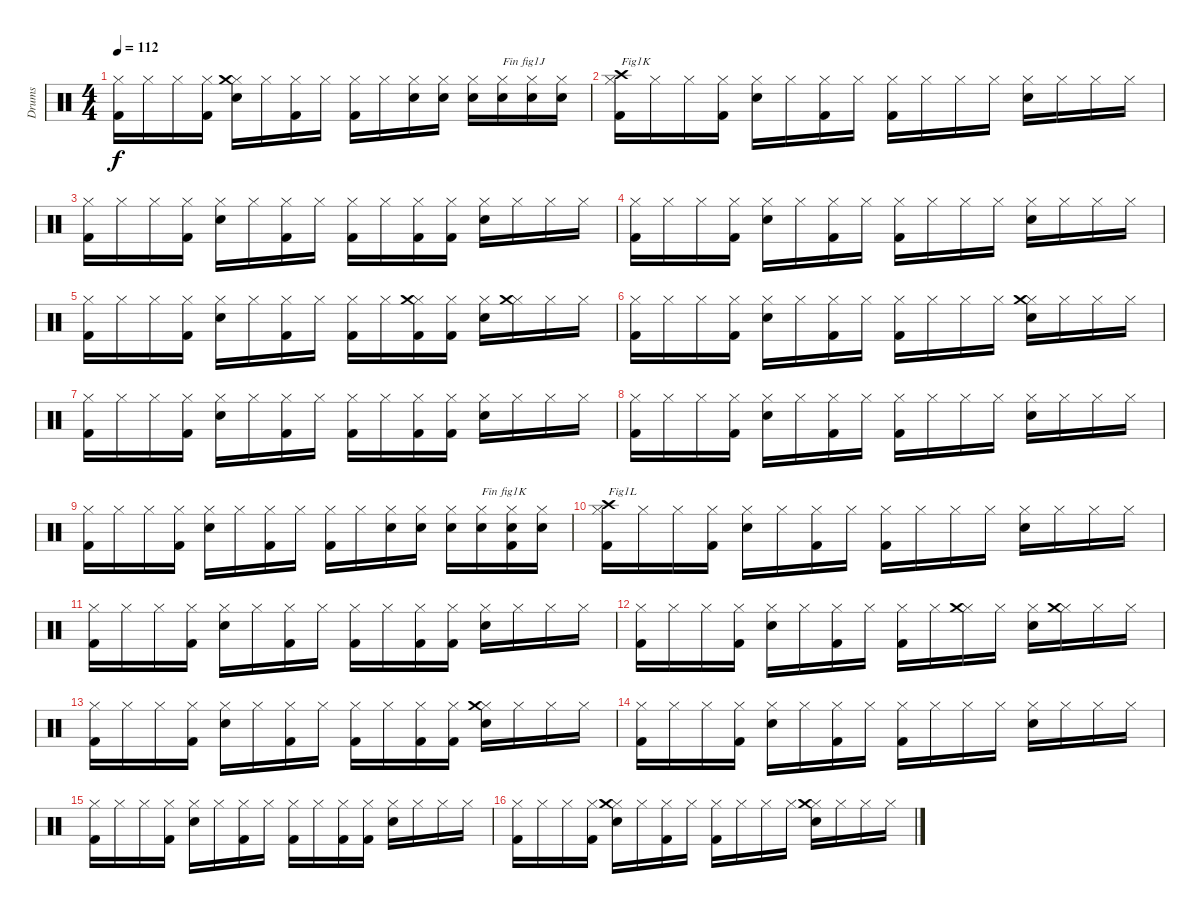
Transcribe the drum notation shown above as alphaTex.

\track ("Drums" "Drums") {instrument percussion}
\staff {score}
\articulation defaults
\ts (4 4)
\tempo 112
\clef neutral
\ks c
("Kick (hit) 2" "Hi-Hat (closed)").16{dy f} "Hi-Hat (closed)".16 "Hi-Hat (closed)".16 ("Kick (hit) 2" "Hi-Hat (closed)").16 ("Electric Snare (hit)" "Hi-Hat (closed)" "Crash medium (hit)").16 "Hi-Hat (closed)".16 ("Kick (hit) 2" "Hi-Hat (closed)").16 "Hi-Hat (closed)".16 ("Kick (hit) 2" "Hi-Hat (closed)").16 "Hi-Hat (closed)".16 ("Electric Snare (hit)" "Hi-Hat (closed)").16 ("Electric Snare (hit)" "Hi-Hat (closed)").16 ("Electric Snare (hit)" "Hi-Hat (closed)").16 ("Electric Snare (hit)" "Hi-Hat (closed)").16{txt "Fin fig1J"} ("Electric Snare (hit)" "Hi-Hat (closed)").16 ("Electric Snare (hit)" "Hi-Hat (closed)").16 |
("Kick (hit) 2" "Hi-Hat (closed)" "Crash high (hit)").16{txt "Fig1K"} "Hi-Hat (closed)".16 "Hi-Hat (closed)".16 ("Kick (hit) 2" "Hi-Hat (closed)").16 ("Electric Snare (hit)" "Hi-Hat (closed)").16 "Hi-Hat (closed)".16 ("Kick (hit) 2" "Hi-Hat (closed)").16 "Hi-Hat (closed)".16 ("Kick (hit) 2" "Hi-Hat (closed)").16 "Hi-Hat (closed)".16 "Hi-Hat (closed)".16 "Hi-Hat (closed)".16 ("Electric Snare (hit)" "Hi-Hat (closed)").16 "Hi-Hat (closed)".16 "Hi-Hat (closed)".16 "Hi-Hat (closed)".16 |
("Kick (hit) 2" "Hi-Hat (closed)").16 "Hi-Hat (closed)".16 "Hi-Hat (closed)".16 ("Kick (hit) 2" "Hi-Hat (closed)").16 ("Electric Snare (hit)" "Hi-Hat (closed)").16 "Hi-Hat (closed)".16 ("Kick (hit) 2" "Hi-Hat (closed)").16 "Hi-Hat (closed)".16 ("Kick (hit) 2" "Hi-Hat (closed)").16 "Hi-Hat (closed)".16 ("Kick (hit) 2" "Hi-Hat (closed)").16 ("Kick (hit) 2" "Hi-Hat (closed)").16 ("Electric Snare (hit)" "Hi-Hat (closed)").16 "Hi-Hat (closed)".16 "Hi-Hat (closed)".16 "Hi-Hat (closed)".16 |
("Kick (hit) 2" "Hi-Hat (closed)").16 "Hi-Hat (closed)".16 "Hi-Hat (closed)".16 ("Kick (hit) 2" "Hi-Hat (closed)").16 ("Electric Snare (hit)" "Hi-Hat (closed)").16 "Hi-Hat (closed)".16 ("Kick (hit) 2" "Hi-Hat (closed)").16 "Hi-Hat (closed)".16 ("Kick (hit) 2" "Hi-Hat (closed)").16 "Hi-Hat (closed)".16 "Hi-Hat (closed)".16 "Hi-Hat (closed)".16 ("Electric Snare (hit)" "Hi-Hat (closed)").16 "Hi-Hat (closed)".16 "Hi-Hat (closed)".16 "Hi-Hat (closed)".16 |
("Kick (hit) 2" "Hi-Hat (closed)").16 "Hi-Hat (closed)".16 "Hi-Hat (closed)".16 ("Kick (hit) 2" "Hi-Hat (closed)").16 ("Electric Snare (hit)" "Hi-Hat (closed)").16 "Hi-Hat (closed)".16 ("Kick (hit) 2" "Hi-Hat (closed)").16 "Hi-Hat (closed)".16 ("Kick (hit) 2" "Hi-Hat (closed)").16 "Hi-Hat (closed)".16 ("Kick (hit) 2" "Hi-Hat (closed)" "Crash medium (hit)").16 ("Kick (hit) 2" "Hi-Hat (closed)").16 ("Electric Snare (hit)" "Hi-Hat (closed)").16 ("Hi-Hat (closed)" "Crash medium (hit)").16 "Hi-Hat (closed)".16 "Hi-Hat (closed)".16 |
("Kick (hit) 2" "Hi-Hat (closed)").16 "Hi-Hat (closed)".16 "Hi-Hat (closed)".16 ("Kick (hit) 2" "Hi-Hat (closed)").16 ("Electric Snare (hit)" "Hi-Hat (closed)").16 "Hi-Hat (closed)".16 ("Kick (hit) 2" "Hi-Hat (closed)").16 "Hi-Hat (closed)".16 ("Kick (hit) 2" "Hi-Hat (closed)").16 "Hi-Hat (closed)".16 "Hi-Hat (closed)".16 "Hi-Hat (closed)".16 ("Electric Snare (hit)" "Hi-Hat (closed)" "Crash medium (hit)").16 "Hi-Hat (closed)".16 "Hi-Hat (closed)".16 "Hi-Hat (closed)".16 |
("Kick (hit) 2" "Hi-Hat (closed)").16 "Hi-Hat (closed)".16 "Hi-Hat (closed)".16 ("Kick (hit) 2" "Hi-Hat (closed)").16 ("Electric Snare (hit)" "Hi-Hat (closed)").16 "Hi-Hat (closed)".16 ("Kick (hit) 2" "Hi-Hat (closed)").16 "Hi-Hat (closed)".16 ("Kick (hit) 2" "Hi-Hat (closed)").16 "Hi-Hat (closed)".16 ("Kick (hit) 2" "Hi-Hat (closed)").16 ("Kick (hit) 2" "Hi-Hat (closed)").16 ("Electric Snare (hit)" "Hi-Hat (closed)").16 "Hi-Hat (closed)".16 "Hi-Hat (closed)".16 "Hi-Hat (closed)".16 |
("Kick (hit) 2" "Hi-Hat (closed)").16 "Hi-Hat (closed)".16 "Hi-Hat (closed)".16 ("Kick (hit) 2" "Hi-Hat (closed)").16 ("Electric Snare (hit)" "Hi-Hat (closed)").16 "Hi-Hat (closed)".16 ("Kick (hit) 2" "Hi-Hat (closed)").16 "Hi-Hat (closed)".16 ("Kick (hit) 2" "Hi-Hat (closed)").16 "Hi-Hat (closed)".16 "Hi-Hat (closed)".16 "Hi-Hat (closed)".16 ("Electric Snare (hit)" "Hi-Hat (closed)").16 "Hi-Hat (closed)".16 "Hi-Hat (closed)".16 "Hi-Hat (closed)".16 |
("Kick (hit) 2" "Hi-Hat (closed)").16 "Hi-Hat (closed)".16 "Hi-Hat (closed)".16 ("Kick (hit) 2" "Hi-Hat (closed)").16 ("Electric Snare (hit)" "Hi-Hat (closed)").16 "Hi-Hat (closed)".16 ("Kick (hit) 2" "Hi-Hat (closed)").16 "Hi-Hat (closed)".16 ("Kick (hit) 2" "Hi-Hat (closed)").16 "Hi-Hat (closed)".16 ("Electric Snare (hit)" "Hi-Hat (closed)").16 ("Electric Snare (hit)" "Hi-Hat (closed)").16 ("Electric Snare (hit)" "Hi-Hat (closed)").16 ("Electric Snare (hit)" "Hi-Hat (closed)").16{txt "Fin fig1K"} ("Kick (hit) 2" "Electric Snare (hit)" "Hi-Hat (closed)").16 ("Electric Snare (hit)" "Hi-Hat (closed)").16 |
("Kick (hit) 2" "Hi-Hat (closed)" "Crash high (hit)").16{txt "Fig1L"} "Hi-Hat (closed)".16 "Hi-Hat (closed)".16 ("Kick (hit) 2" "Hi-Hat (closed)").16 ("Electric Snare (hit)" "Hi-Hat (closed)").16 "Hi-Hat (closed)".16 ("Kick (hit) 2" "Hi-Hat (closed)").16 "Hi-Hat (closed)".16 ("Kick (hit) 2" "Hi-Hat (closed)").16 "Hi-Hat (closed)".16 "Hi-Hat (closed)".16 "Hi-Hat (closed)".16 ("Electric Snare (hit)" "Hi-Hat (closed)").16 "Hi-Hat (closed)".16 "Hi-Hat (closed)".16 "Hi-Hat (closed)".16 |
("Kick (hit) 2" "Hi-Hat (closed)").16 "Hi-Hat (closed)".16 "Hi-Hat (closed)".16 ("Kick (hit) 2" "Hi-Hat (closed)").16 ("Electric Snare (hit)" "Hi-Hat (closed)").16 "Hi-Hat (closed)".16 ("Kick (hit) 2" "Hi-Hat (closed)").16 "Hi-Hat (closed)".16 ("Kick (hit) 2" "Hi-Hat (closed)").16 "Hi-Hat (closed)".16 ("Kick (hit) 2" "Hi-Hat (closed)").16 ("Kick (hit) 2" "Hi-Hat (closed)").16 ("Electric Snare (hit)" "Hi-Hat (closed)").16 "Hi-Hat (closed)".16 "Hi-Hat (closed)".16 "Hi-Hat (closed)".16 |
("Kick (hit) 2" "Hi-Hat (closed)").16 "Hi-Hat (closed)".16 "Hi-Hat (closed)".16 ("Kick (hit) 2" "Hi-Hat (closed)").16 ("Electric Snare (hit)" "Hi-Hat (closed)").16 "Hi-Hat (closed)".16 ("Kick (hit) 2" "Hi-Hat (closed)").16 "Hi-Hat (closed)".16 ("Kick (hit) 2" "Hi-Hat (closed)").16 "Hi-Hat (closed)".16 ("Hi-Hat (closed)" "Crash medium (hit)").16 "Hi-Hat (closed)".16 ("Electric Snare (hit)" "Hi-Hat (closed)").16 ("Hi-Hat (closed)" "Crash medium (hit)").16 "Hi-Hat (closed)".16 "Hi-Hat (closed)".16 |
("Kick (hit) 2" "Hi-Hat (closed)").16 "Hi-Hat (closed)".16 "Hi-Hat (closed)".16 ("Kick (hit) 2" "Hi-Hat (closed)").16 ("Electric Snare (hit)" "Hi-Hat (closed)").16 "Hi-Hat (closed)".16 ("Kick (hit) 2" "Hi-Hat (closed)").16 "Hi-Hat (closed)".16 ("Kick (hit) 2" "Hi-Hat (closed)").16 "Hi-Hat (closed)".16 ("Kick (hit) 2" "Hi-Hat (closed)").16 ("Kick (hit) 2" "Hi-Hat (closed)").16 ("Electric Snare (hit)" "Hi-Hat (closed)" "Crash medium (hit)").16 "Hi-Hat (closed)".16 "Hi-Hat (closed)".16 "Hi-Hat (closed)".16 |
("Kick (hit) 2" "Hi-Hat (closed)").16 "Hi-Hat (closed)".16 "Hi-Hat (closed)".16 ("Kick (hit) 2" "Hi-Hat (closed)").16 ("Electric Snare (hit)" "Hi-Hat (closed)").16 "Hi-Hat (closed)".16 ("Kick (hit) 2" "Hi-Hat (closed)").16 "Hi-Hat (closed)".16 ("Kick (hit) 2" "Hi-Hat (closed)").16 "Hi-Hat (closed)".16 "Hi-Hat (closed)".16 "Hi-Hat (closed)".16 ("Electric Snare (hit)" "Hi-Hat (closed)").16 "Hi-Hat (closed)".16 "Hi-Hat (closed)".16 "Hi-Hat (closed)".16 |
("Kick (hit) 2" "Hi-Hat (closed)").16 "Hi-Hat (closed)".16 "Hi-Hat (closed)".16 ("Kick (hit) 2" "Hi-Hat (closed)").16 ("Electric Snare (hit)" "Hi-Hat (closed)").16 "Hi-Hat (closed)".16 ("Kick (hit) 2" "Hi-Hat (closed)").16 "Hi-Hat (closed)".16 ("Kick (hit) 2" "Hi-Hat (closed)").16 "Hi-Hat (closed)".16 ("Kick (hit) 2" "Hi-Hat (closed)").16 ("Kick (hit) 2" "Hi-Hat (closed)").16 ("Electric Snare (hit)" "Hi-Hat (closed)").16 "Hi-Hat (closed)".16 "Hi-Hat (closed)".16 "Hi-Hat (closed)".16 |
("Kick (hit) 2" "Hi-Hat (closed)").16 "Hi-Hat (closed)".16 "Hi-Hat (closed)".16 ("Kick (hit) 2" "Hi-Hat (closed)").16 ("Electric Snare (hit)" "Hi-Hat (closed)" "Crash medium (hit)").16 "Hi-Hat (closed)".16 ("Kick (hit) 2" "Hi-Hat (closed)").16 "Hi-Hat (closed)".16 ("Kick (hit) 2" "Hi-Hat (closed)").16 "Hi-Hat (closed)".16 "Hi-Hat (closed)".16 "Hi-Hat (closed)".16 ("Electric Snare (hit)" "Hi-Hat (closed)" "Crash medium (hit)").16 "Hi-Hat (closed)".16 "Hi-Hat (closed)".16 "Hi-Hat (closed)".16
